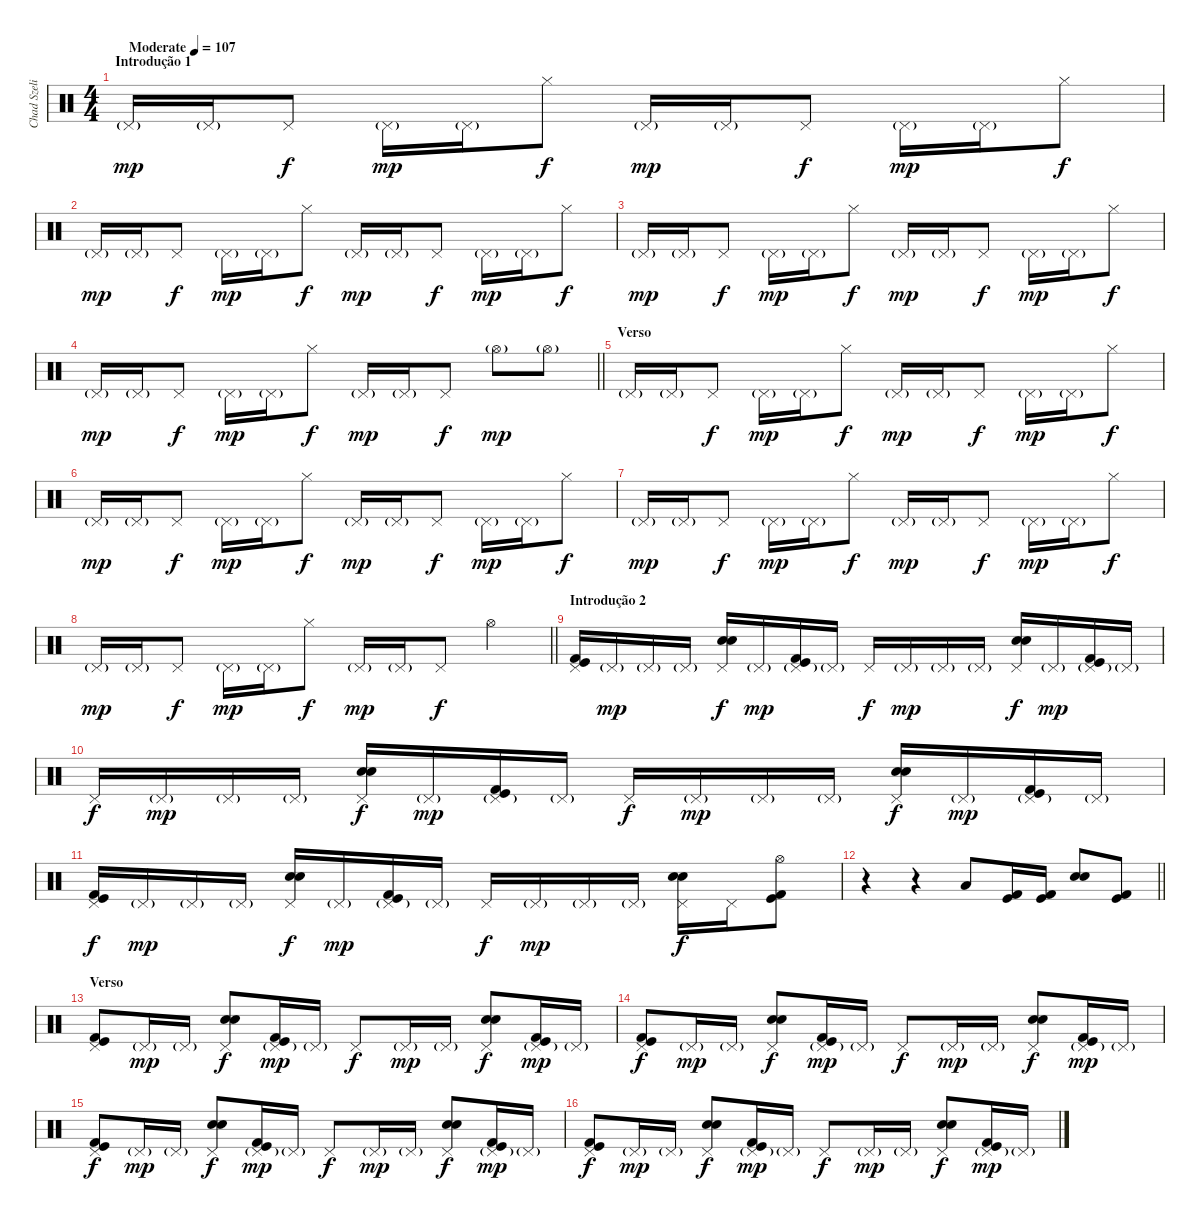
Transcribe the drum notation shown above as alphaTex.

\track ("Chad Szeliga" "Chad Szeli") {instrument percussion}
\staff {score}
\articulation defaults
\ts (4 4)
\section ("" "Introdução 1")
\tempo (107 "Moderate")
\clef neutral
\ks c "Pedal Hi-Hat (hit)"{g}.16{dy mp} "Pedal Hi-Hat (hit)"{g}.16 "Pedal Hi-Hat (hit)".8{dy f} "Pedal Hi-Hat (hit)"{g}.16{dy mp} "Pedal Hi-Hat (hit)"{g}.16 "Hi-Hat (closed)".8{dy f} "Pedal Hi-Hat (hit)"{g}.16{dy mp} "Pedal Hi-Hat (hit)"{g}.16 "Pedal Hi-Hat (hit)".8{dy f} "Pedal Hi-Hat (hit)"{g}.16{dy mp} "Pedal Hi-Hat (hit)"{g}.16 "Hi-Hat (closed)".8{dy f}
|
"Pedal Hi-Hat (hit)"{g}.16{dy mp} "Pedal Hi-Hat (hit)"{g}.16 "Pedal Hi-Hat (hit)".8{dy f} "Pedal Hi-Hat (hit)"{g}.16{dy mp} "Pedal Hi-Hat (hit)"{g}.16 "Hi-Hat (closed)".8{dy f} "Pedal Hi-Hat (hit)"{g}.16{dy mp} "Pedal Hi-Hat (hit)"{g}.16 "Pedal Hi-Hat (hit)".8{dy f} "Pedal Hi-Hat (hit)"{g}.16{dy mp} "Pedal Hi-Hat (hit)"{g}.16 "Hi-Hat (closed)".8{dy f} |
"Pedal Hi-Hat (hit)"{g}.16{dy mp} "Pedal Hi-Hat (hit)"{g}.16 "Pedal Hi-Hat (hit)".8{dy f} "Pedal Hi-Hat (hit)"{g}.16{dy mp} "Pedal Hi-Hat (hit)"{g}.16 "Hi-Hat (closed)".8{dy f} "Pedal Hi-Hat (hit)"{g}.16{dy mp} "Pedal Hi-Hat (hit)"{g}.16 "Pedal Hi-Hat (hit)".8{dy f} "Pedal Hi-Hat (hit)"{g}.16{dy mp} "Pedal Hi-Hat (hit)"{g}.16 "Hi-Hat (closed)".8{dy f} |
\barLineRight lightlight "Pedal Hi-Hat (hit)"{g}.16{dy mp} "Pedal Hi-Hat (hit)"{g}.16 "Pedal Hi-Hat (hit)".8{dy f} "Pedal Hi-Hat (hit)"{g}.16{dy mp} "Pedal Hi-Hat (hit)"{g}.16 "Hi-Hat (closed)".8{dy f} "Pedal Hi-Hat (hit)"{g}.16{dy mp} "Pedal Hi-Hat (hit)"{g}.16 "Pedal Hi-Hat (hit)".8{dy f} "Hi-Hat (open)"{g}.8{dy mp} "Hi-Hat (open)"{g}.8
|
\section ("" "Verso")
"Pedal Hi-Hat (hit)"{g}.16 "Pedal Hi-Hat (hit)"{g}.16 "Pedal Hi-Hat (hit)".8{dy f} "Pedal Hi-Hat (hit)"{g}.16{dy mp} "Pedal Hi-Hat (hit)"{g}.16 "Hi-Hat (closed)".8{dy f} "Pedal Hi-Hat (hit)"{g}.16{dy mp} "Pedal Hi-Hat (hit)"{g}.16 "Pedal Hi-Hat (hit)".8{dy f} "Pedal Hi-Hat (hit)"{g}.16{dy mp} "Pedal Hi-Hat (hit)"{g}.16 "Hi-Hat (closed)".8{dy f} |
"Pedal Hi-Hat (hit)"{g}.16{dy mp} "Pedal Hi-Hat (hit)"{g}.16 "Pedal Hi-Hat (hit)".8{dy f} "Pedal Hi-Hat (hit)"{g}.16{dy mp} "Pedal Hi-Hat (hit)"{g}.16 "Hi-Hat (closed)".8{dy f} "Pedal Hi-Hat (hit)"{g}.16{dy mp} "Pedal Hi-Hat (hit)"{g}.16 "Pedal Hi-Hat (hit)".8{dy f} "Pedal Hi-Hat (hit)"{g}.16{dy mp} "Pedal Hi-Hat (hit)"{g}.16 "Hi-Hat (closed)".8{dy f} |
"Pedal Hi-Hat (hit)"{g}.16{dy mp} "Pedal Hi-Hat (hit)"{g}.16 "Pedal Hi-Hat (hit)".8{dy f} "Pedal Hi-Hat (hit)"{g}.16{dy mp} "Pedal Hi-Hat (hit)"{g}.16 "Hi-Hat (closed)".8{dy f} "Pedal Hi-Hat (hit)"{g}.16{dy mp} "Pedal Hi-Hat (hit)"{g}.16 "Pedal Hi-Hat (hit)".8{dy f} "Pedal Hi-Hat (hit)"{g}.16{dy mp} "Pedal Hi-Hat (hit)"{g}.16 "Hi-Hat (closed)".8{dy f} |
\barLineRight lightlight "Pedal Hi-Hat (hit)"{g}.16{dy mp} "Pedal Hi-Hat (hit)"{g}.16 "Pedal Hi-Hat (hit)".8{dy f} "Pedal Hi-Hat (hit)"{g}.16{dy mp} "Pedal Hi-Hat (hit)"{g}.16 "Hi-Hat (closed)".8{dy f} "Pedal Hi-Hat (hit)"{g}.16{dy mp} "Pedal Hi-Hat (hit)"{g}.16 "Pedal Hi-Hat (hit)".8{dy f} "Hi-Hat (open)".4
|
\section ("" "Introdução 2")
("Kick (hit) 2" "Kick (hit)" "Pedal Hi-Hat (hit)").16 "Pedal Hi-Hat (hit)"{g}.16{dy mp} "Pedal Hi-Hat (hit)"{g}.16 "Pedal Hi-Hat (hit)"{g}.16 ("Snare (hit) 2" "Snare (hit) 2" "Pedal Hi-Hat (hit)").16{dy f} "Pedal Hi-Hat (hit)"{g}.16{dy mp} ("Kick (hit) 2" "Kick (hit)" "Pedal Hi-Hat (hit)"{g}).16 "Pedal Hi-Hat (hit)"{g}.16 "Pedal Hi-Hat (hit)".16{dy f} "Pedal Hi-Hat (hit)"{g}.16{dy mp} "Pedal Hi-Hat (hit)"{g}.16 "Pedal Hi-Hat (hit)"{g}.16 ("Snare (hit) 2" "Snare (hit) 2" "Pedal Hi-Hat (hit)").16{dy f} "Pedal Hi-Hat (hit)"{g}.16{dy mp} ("Kick (hit) 2" "Kick (hit)" "Pedal Hi-Hat (hit)"{g}).16 "Pedal Hi-Hat (hit)"{g}.16 |
"Pedal Hi-Hat (hit)".16{dy f} "Pedal Hi-Hat (hit)"{g}.16{dy mp} "Pedal Hi-Hat (hit)"{g}.16 "Pedal Hi-Hat (hit)"{g}.16 ("Snare (hit) 2" "Snare (hit) 2" "Pedal Hi-Hat (hit)").16{dy f} "Pedal Hi-Hat (hit)"{g}.16{dy mp} ("Kick (hit) 2" "Kick (hit)" "Pedal Hi-Hat (hit)"{g}).16 "Pedal Hi-Hat (hit)"{g}.16 "Pedal Hi-Hat (hit)".16{dy f} "Pedal Hi-Hat (hit)"{g}.16{dy mp} "Pedal Hi-Hat (hit)"{g}.16 "Pedal Hi-Hat (hit)"{g}.16 ("Snare (hit) 2" "Snare (hit) 2" "Pedal Hi-Hat (hit)").16{dy f} "Pedal Hi-Hat (hit)"{g}.16{dy mp} ("Kick (hit) 2" "Kick (hit)" "Pedal Hi-Hat (hit)"{g}).16 "Pedal Hi-Hat (hit)"{g}.16 |
("Kick (hit) 2" "Kick (hit)" "Pedal Hi-Hat (hit)").16{dy f} "Pedal Hi-Hat (hit)"{g}.16{dy mp} "Pedal Hi-Hat (hit)"{g}.16 "Pedal Hi-Hat (hit)"{g}.16 ("Snare (hit) 2" "Snare (hit) 2" "Pedal Hi-Hat (hit)").16{dy f} "Pedal Hi-Hat (hit)"{g}.16{dy mp} ("Kick (hit) 2" "Kick (hit)" "Pedal Hi-Hat (hit)"{g}).16 "Pedal Hi-Hat (hit)"{g}.16 "Pedal Hi-Hat (hit)".16{dy f} "Pedal Hi-Hat (hit)"{g}.16{dy mp} "Pedal Hi-Hat (hit)"{g}.16 "Pedal Hi-Hat (hit)"{g}.16 ("Snare (hit) 2" "Snare (hit) 2" "Pedal Hi-Hat (hit)").16{dy f} "Pedal Hi-Hat (hit)".16 ("Kick (hit) 2" "Kick (hit)" "Hi-Hat (open)").8 |
\barLineRight lightlight
r.4 r.4 "Low Tom (hit)".8 ("Kick (hit) 2" "Kick (hit)").16 ("Kick (hit) 2" "Kick (hit)").16 ("Snare (hit) 2" "Snare (hit) 2").8 ("Kick (hit) 2" "Kick (hit)").8 |
\section ("" "Verso")
("Kick (hit) 2" "Kick (hit)" "Pedal Hi-Hat (hit)").8 "Pedal Hi-Hat (hit)"{g}.16{dy mp} "Pedal Hi-Hat (hit)"{g}.16 ("Snare (hit) 2" "Snare (hit) 2" "Pedal Hi-Hat (hit)").8{dy f} ("Kick (hit) 2" "Kick (hit)" "Pedal Hi-Hat (hit)"{g}).16{dy mp} "Pedal Hi-Hat (hit)"{g}.16 "Pedal Hi-Hat (hit)".8{dy f} "Pedal Hi-Hat (hit)"{g}.16{dy mp} "Pedal Hi-Hat (hit)"{g}.16 ("Snare (hit) 2" "Snare (hit) 2" "Pedal Hi-Hat (hit)").8{dy f} ("Kick (hit) 2" "Kick (hit)" "Pedal Hi-Hat (hit)"{g}).16{dy mp} "Pedal Hi-Hat (hit)"{g}.16 |
("Kick (hit) 2" "Kick (hit)" "Pedal Hi-Hat (hit)").8{dy f} "Pedal Hi-Hat (hit)"{g}.16{dy mp} "Pedal Hi-Hat (hit)"{g}.16 ("Snare (hit) 2" "Snare (hit) 2" "Pedal Hi-Hat (hit)").8{dy f} ("Kick (hit) 2" "Kick (hit)" "Pedal Hi-Hat (hit)"{g}).16{dy mp} "Pedal Hi-Hat (hit)"{g}.16 "Pedal Hi-Hat (hit)".8{dy f} "Pedal Hi-Hat (hit)"{g}.16{dy mp} "Pedal Hi-Hat (hit)"{g}.16 ("Snare (hit) 2" "Snare (hit) 2" "Pedal Hi-Hat (hit)").8{dy f} ("Kick (hit) 2" "Kick (hit)" "Pedal Hi-Hat (hit)"{g}).16{dy mp} "Pedal Hi-Hat (hit)"{g}.16 |
("Kick (hit) 2" "Kick (hit)" "Pedal Hi-Hat (hit)").8{dy f} "Pedal Hi-Hat (hit)"{g}.16{dy mp} "Pedal Hi-Hat (hit)"{g}.16 ("Snare (hit) 2" "Snare (hit) 2" "Pedal Hi-Hat (hit)").8{dy f} ("Kick (hit) 2" "Kick (hit)" "Pedal Hi-Hat (hit)"{g}).16{dy mp} "Pedal Hi-Hat (hit)"{g}.16 "Pedal Hi-Hat (hit)".8{dy f} "Pedal Hi-Hat (hit)"{g}.16{dy mp} "Pedal Hi-Hat (hit)"{g}.16 ("Snare (hit) 2" "Snare (hit) 2" "Pedal Hi-Hat (hit)").8{dy f} ("Kick (hit) 2" "Kick (hit)" "Pedal Hi-Hat (hit)"{g}).16{dy mp} "Pedal Hi-Hat (hit)"{g}.16 |
("Kick (hit) 2" "Kick (hit)" "Pedal Hi-Hat (hit)").8{dy f} "Pedal Hi-Hat (hit)"{g}.16{dy mp} "Pedal Hi-Hat (hit)"{g}.16 ("Snare (hit) 2" "Snare (hit) 2" "Pedal Hi-Hat (hit)").8{dy f} ("Kick (hit) 2" "Kick (hit)" "Pedal Hi-Hat (hit)"{g}).16{dy mp} "Pedal Hi-Hat (hit)"{g}.16 "Pedal Hi-Hat (hit)".8{dy f} "Pedal Hi-Hat (hit)"{g}.16{dy mp} "Pedal Hi-Hat (hit)"{g}.16 ("Snare (hit) 2" "Snare (hit) 2" "Pedal Hi-Hat (hit)").8{dy f} ("Kick (hit) 2" "Kick (hit)" "Pedal Hi-Hat (hit)"{g}).16{dy mp} "Pedal Hi-Hat (hit)"{g}.16
